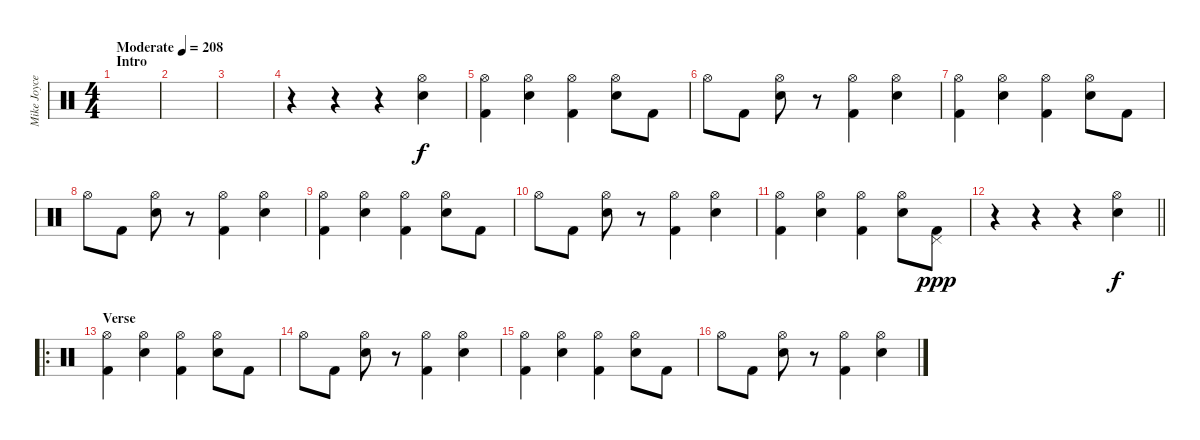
\track ("Mike Joyce" "Mike Joyce") {instrument percussion}
\staff {score}
\articulation defaults
\ts (4 4)
\section ("" "Intro")
\tempo (208 "Moderate")
\clef neutral
\ks c
|
|
|
r.4 r.4 r.4 ("Snare (hit) 2" "Hi-Hat (open)").4 |
("Hi-Hat (open)" "Kick (hit) 2").4 ("Hi-Hat (open)" "Snare (hit) 2").4 ("Hi-Hat (open)" "Kick (hit) 2").4 ("Hi-Hat (open)" "Snare (hit) 2").8 "Kick (hit) 2".8 |
"Hi-Hat (open)".8 "Kick (hit) 2".8 ("Hi-Hat (open)" "Snare (hit) 2").8 r.8 ("Hi-Hat (open)" "Kick (hit) 2").4 ("Hi-Hat (open)" "Snare (hit) 2").4 |
("Hi-Hat (open)" "Kick (hit) 2").4 ("Hi-Hat (open)" "Snare (hit) 2").4 ("Hi-Hat (open)" "Kick (hit) 2").4 ("Hi-Hat (open)" "Snare (hit) 2").8 "Kick (hit) 2".8 |
"Hi-Hat (open)".8 "Kick (hit) 2".8 ("Hi-Hat (open)" "Snare (hit) 2").8 r.8 ("Hi-Hat (open)" "Kick (hit) 2").4 ("Hi-Hat (open)" "Snare (hit) 2").4 |
("Hi-Hat (open)" "Kick (hit) 2").4 ("Hi-Hat (open)" "Snare (hit) 2").4 ("Hi-Hat (open)" "Kick (hit) 2").4 ("Hi-Hat (open)" "Snare (hit) 2").8 "Kick (hit) 2".8 |
"Hi-Hat (open)".8 "Kick (hit) 2".8 ("Hi-Hat (open)" "Snare (hit) 2").8 r.8 ("Hi-Hat (open)" "Kick (hit) 2").4 ("Hi-Hat (open)" "Snare (hit) 2").4 |
("Hi-Hat (open)" "Kick (hit) 2").4 ("Hi-Hat (open)" "Snare (hit) 2").4 ("Hi-Hat (open)" "Kick (hit) 2").4 ("Hi-Hat (open)" "Snare (hit) 2").8 ("Pedal Hi-Hat (hit)" "Kick (hit) 2").8{dy ppp} |
\barLineRight lightlight
r.4 r.4 r.4 ("Snare (hit) 2" "Hi-Hat (open)").4{dy f} |
\ro
\section ("" "Verse")
("Hi-Hat (open)" "Kick (hit) 2").4 ("Hi-Hat (open)" "Snare (hit) 2").4 ("Hi-Hat (open)" "Kick (hit) 2").4 ("Hi-Hat (open)" "Snare (hit) 2").8 "Kick (hit) 2".8 |
"Hi-Hat (open)".8 "Kick (hit) 2".8 ("Hi-Hat (open)" "Snare (hit) 2").8 r.8 ("Hi-Hat (open)" "Kick (hit) 2").4 ("Hi-Hat (open)" "Snare (hit) 2").4 |
("Hi-Hat (open)" "Kick (hit) 2").4 ("Hi-Hat (open)" "Snare (hit) 2").4 ("Hi-Hat (open)" "Kick (hit) 2").4 ("Hi-Hat (open)" "Snare (hit) 2").8 "Kick (hit) 2".8 |
"Hi-Hat (open)".8 "Kick (hit) 2".8 ("Hi-Hat (open)" "Snare (hit) 2").8 r.8 ("Hi-Hat (open)" "Kick (hit) 2").4 ("Hi-Hat (open)" "Snare (hit) 2").4
